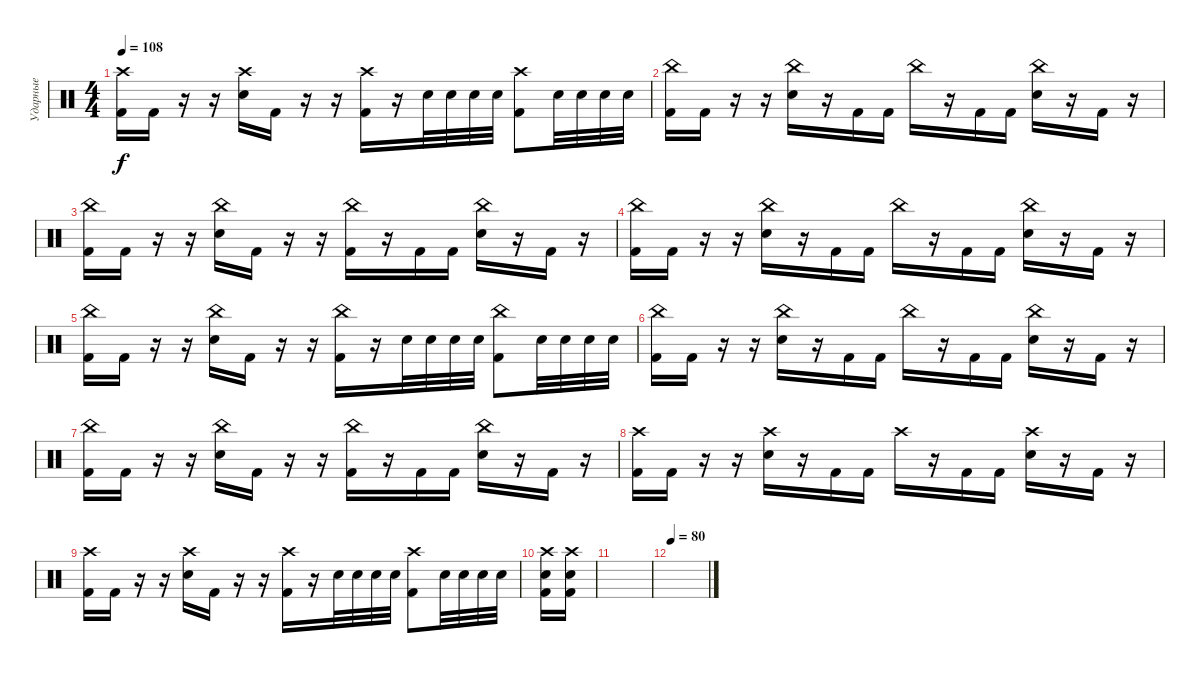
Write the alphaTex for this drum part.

\track ("Ударные" "Ударные") {instrument percussion}
\staff {score}
\articulation defaults
\ts (4 4)
\tempo 108
\clef neutral
\ks c
("Crash high (hit)" "Kick (hit) 2").16{dy f} "Kick (hit) 2".16 r.16 r.16 ("Crash high (hit)" "Electric Snare (hit)").16 "Kick (hit) 2".16 r.16 r.16 ("Crash high (hit)" "Kick (hit) 2").16 r.16 "Electric Snare (hit)".32 "Electric Snare (hit)".32 "Electric Snare (hit)".32 "Electric Snare (hit)".32 ("Crash high (hit)" "Kick (hit) 2").8 "Electric Snare (hit)".32 "Electric Snare (hit)".32 "Electric Snare (hit)".32 "Electric Snare (hit)".32 |
("China (hit)" "Kick (hit) 2").16 "Kick (hit) 2".16 r.16 r.16 ("China (hit)" "Electric Snare (hit)").16 r.16 "Kick (hit) 2".16 "Kick (hit) 2".16 "China (hit)".16 r.16 "Kick (hit) 2".16 "Kick (hit) 2".16 ("China (hit)" "Electric Snare (hit)").16 r.16 "Kick (hit) 2".16 r.16 |
("China (hit)" "Kick (hit) 2").16 "Kick (hit) 2".16 r.16 r.16 ("China (hit)" "Electric Snare (hit)").16 "Kick (hit) 2".16 r.16 r.16 ("China (hit)" "Kick (hit) 2").16 r.16 "Kick (hit) 2".16 "Kick (hit) 2".16 ("China (hit)" "Electric Snare (hit)").16 r.16 "Kick (hit) 2".16 r.16 |
("China (hit)" "Kick (hit) 2").16 "Kick (hit) 2".16 r.16 r.16 ("China (hit)" "Electric Snare (hit)").16 r.16 "Kick (hit) 2".16 "Kick (hit) 2".16 "China (hit)".16 r.16 "Kick (hit) 2".16 "Kick (hit) 2".16 ("China (hit)" "Electric Snare (hit)").16 r.16 "Kick (hit) 2".16 r.16 |
("China (hit)" "Kick (hit) 2").16 "Kick (hit) 2".16 r.16 r.16 ("China (hit)" "Electric Snare (hit)").16 "Kick (hit) 2".16 r.16 r.16 ("China (hit)" "Kick (hit) 2").16 r.16 "Electric Snare (hit)".32 "Electric Snare (hit)".32 "Electric Snare (hit)".32 "Electric Snare (hit)".32 ("China (hit)" "Kick (hit) 2").8 "Electric Snare (hit)".32 "Electric Snare (hit)".32 "Electric Snare (hit)".32 "Electric Snare (hit)".32 |
("China (hit)" "Kick (hit) 2").16 "Kick (hit) 2".16 r.16 r.16 ("China (hit)" "Electric Snare (hit)").16 r.16 "Kick (hit) 2".16 "Kick (hit) 2".16 "China (hit)".16 r.16 "Kick (hit) 2".16 "Kick (hit) 2".16 ("China (hit)" "Electric Snare (hit)").16 r.16 "Kick (hit) 2".16 r.16 |
("China (hit)" "Kick (hit) 2").16 "Kick (hit) 2".16 r.16 r.16 ("China (hit)" "Electric Snare (hit)").16 "Kick (hit) 2".16 r.16 r.16 ("China (hit)" "Kick (hit) 2").16 r.16 "Kick (hit) 2".16 "Kick (hit) 2".16 ("China (hit)" "Electric Snare (hit)").16 r.16 "Kick (hit) 2".16 r.16 |
("Crash high (hit)" "Kick (hit) 2").16 "Kick (hit) 2".16 r.16 r.16 ("Crash high (hit)" "Electric Snare (hit)").16 r.16 "Kick (hit) 2".16 "Kick (hit) 2".16 "Crash high (hit)".16 r.16 "Kick (hit) 2".16 "Kick (hit) 2".16 ("Crash high (hit)" "Electric Snare (hit)").16 r.16 "Kick (hit) 2".16 r.16 |
("Crash high (hit)" "Kick (hit) 2").16 "Kick (hit) 2".16 r.16 r.16 ("Crash high (hit)" "Electric Snare (hit)").16 "Kick (hit) 2".16 r.16 r.16 ("Crash high (hit)" "Kick (hit) 2").16 r.16 "Electric Snare (hit)".32 "Electric Snare (hit)".32 "Electric Snare (hit)".32 "Electric Snare (hit)".32 ("Crash high (hit)" "Kick (hit) 2").8 "Electric Snare (hit)".32 "Electric Snare (hit)".32 "Electric Snare (hit)".32 "Electric Snare (hit)".32 |
("Crash high (hit)" "Electric Snare (hit)" "Kick (hit) 2").16 ("Crash high (hit)" "Electric Snare (hit)" "Kick (hit) 2").16 |
|
\tempo 80
